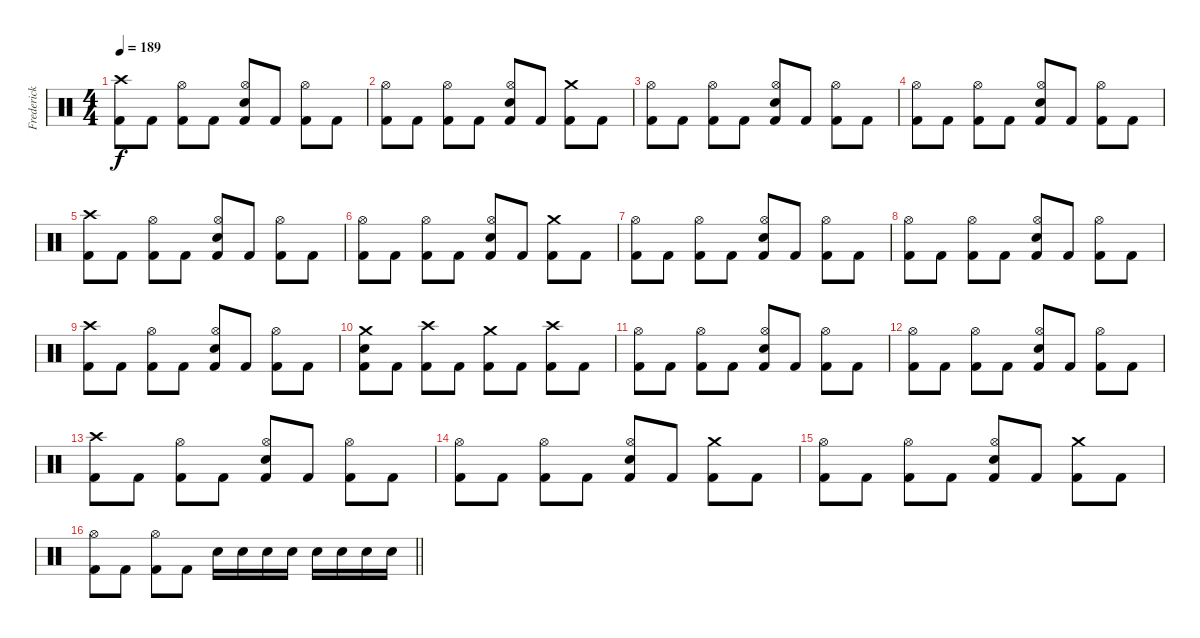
\track ("Frederick Ehmke" "Frederick ") {instrument percussion}
\staff {score}
\articulation defaults
\ts (4 4)
\tempo 189
\clef neutral
\ks c
("Kick (hit) 2" "Crash high (hit)").8{dy f} "Kick (hit) 2".8 ("Kick (hit) 2" "Hi-Hat (open)").8 "Kick (hit) 2".8 ("Electric Snare (hit)" "Kick (hit) 2" "Hi-Hat (open)").8 "Kick (hit) 2".8 ("Kick (hit) 2" "Hi-Hat (open)").8 "Kick (hit) 2".8 |
("Kick (hit) 2" "Hi-Hat (open)").8 "Kick (hit) 2".8 ("Kick (hit) 2" "Hi-Hat (open)").8 "Kick (hit) 2".8 ("Electric Snare (hit)" "Kick (hit) 2" "Hi-Hat (open)").8 "Kick (hit) 2".8 ("Kick (hit) 2" "Crash medium (hit)").8 "Kick (hit) 2".8 |
("Kick (hit) 2" "Hi-Hat (open)").8 "Kick (hit) 2".8 ("Kick (hit) 2" "Hi-Hat (open)").8 "Kick (hit) 2".8 ("Electric Snare (hit)" "Kick (hit) 2" "Hi-Hat (open)").8 "Kick (hit) 2".8 ("Kick (hit) 2" "Hi-Hat (open)").8 "Kick (hit) 2".8 |
("Kick (hit) 2" "Hi-Hat (open)").8 "Kick (hit) 2".8 ("Kick (hit) 2" "Hi-Hat (open)").8 "Kick (hit) 2".8 ("Electric Snare (hit)" "Kick (hit) 2" "Hi-Hat (open)").8 "Kick (hit) 2".8 ("Kick (hit) 2" "Hi-Hat (open)").8 "Kick (hit) 2".8 |
("Kick (hit) 2" "Crash high (hit)").8 "Kick (hit) 2".8 ("Kick (hit) 2" "Hi-Hat (open)").8 "Kick (hit) 2".8 ("Electric Snare (hit)" "Kick (hit) 2" "Hi-Hat (open)").8 "Kick (hit) 2".8 ("Kick (hit) 2" "Hi-Hat (open)").8 "Kick (hit) 2".8 |
("Kick (hit) 2" "Hi-Hat (open)").8 "Kick (hit) 2".8 ("Kick (hit) 2" "Hi-Hat (open)").8 "Kick (hit) 2".8 ("Electric Snare (hit)" "Kick (hit) 2" "Hi-Hat (open)").8 "Kick (hit) 2".8 ("Kick (hit) 2" "Crash medium (hit)").8 "Kick (hit) 2".8 |
("Kick (hit) 2" "Hi-Hat (open)").8 "Kick (hit) 2".8 ("Kick (hit) 2" "Hi-Hat (open)").8 "Kick (hit) 2".8 ("Electric Snare (hit)" "Kick (hit) 2" "Hi-Hat (open)").8 "Kick (hit) 2".8 ("Kick (hit) 2" "Hi-Hat (open)").8 "Kick (hit) 2".8 |
("Kick (hit) 2" "Hi-Hat (open)").8 "Kick (hit) 2".8 ("Kick (hit) 2" "Hi-Hat (open)").8 "Kick (hit) 2".8 ("Electric Snare (hit)" "Kick (hit) 2" "Hi-Hat (open)").8 "Kick (hit) 2".8 ("Kick (hit) 2" "Hi-Hat (open)").8 "Kick (hit) 2".8 |
("Kick (hit) 2" "Crash high (hit)").8 "Kick (hit) 2".8 ("Kick (hit) 2" "Hi-Hat (open)").8 "Kick (hit) 2".8 ("Electric Snare (hit)" "Kick (hit) 2" "Hi-Hat (open)").8 "Kick (hit) 2".8 ("Kick (hit) 2" "Hi-Hat (open)").8 "Kick (hit) 2".8 |
("Electric Snare (hit)" "Kick (hit) 2" "Crash medium (hit)").8 "Kick (hit) 2".8 ("Kick (hit) 2" "Crash high (hit)").8 "Kick (hit) 2".8 ("Kick (hit) 2" "Crash medium (hit)").8 "Kick (hit) 2".8 ("Kick (hit) 2" "Crash high (hit)").8 "Kick (hit) 2".8 |
("Kick (hit) 2" "Hi-Hat (open)").8 "Kick (hit) 2".8 ("Kick (hit) 2" "Hi-Hat (open)").8 "Kick (hit) 2".8 ("Electric Snare (hit)" "Kick (hit) 2" "Hi-Hat (open)").8 "Kick (hit) 2".8 ("Kick (hit) 2" "Hi-Hat (open)").8 "Kick (hit) 2".8 |
("Kick (hit) 2" "Hi-Hat (open)").8 "Kick (hit) 2".8 ("Kick (hit) 2" "Hi-Hat (open)").8 "Kick (hit) 2".8 ("Electric Snare (hit)" "Kick (hit) 2" "Hi-Hat (open)").8 "Kick (hit) 2".8 ("Kick (hit) 2" "Hi-Hat (open)").8 "Kick (hit) 2".8 |
("Kick (hit) 2" "Crash high (hit)").8 "Kick (hit) 2".8 ("Kick (hit) 2" "Hi-Hat (open)").8 "Kick (hit) 2".8 ("Electric Snare (hit)" "Kick (hit) 2" "Hi-Hat (open)").8 "Kick (hit) 2".8 ("Kick (hit) 2" "Hi-Hat (open)").8 "Kick (hit) 2".8 |
("Kick (hit) 2" "Hi-Hat (open)").8 "Kick (hit) 2".8 ("Kick (hit) 2" "Hi-Hat (open)").8 "Kick (hit) 2".8 ("Electric Snare (hit)" "Kick (hit) 2" "Hi-Hat (open)").8 "Kick (hit) 2".8 ("Kick (hit) 2" "Crash medium (hit)").8 "Kick (hit) 2".8 |
("Kick (hit) 2" "Hi-Hat (open)").8 "Kick (hit) 2".8 ("Kick (hit) 2" "Hi-Hat (open)").8 "Kick (hit) 2".8 ("Electric Snare (hit)" "Kick (hit) 2" "Hi-Hat (open)").8 "Kick (hit) 2".8 ("Kick (hit) 2" "Crash medium (hit)").8 "Kick (hit) 2".8 |
\barLineRight lightlight
("Kick (hit) 2" "Hi-Hat (open)").8 "Kick (hit) 2".8 ("Kick (hit) 2" "Hi-Hat (open)").8 "Kick (hit) 2".8 "Electric Snare (hit)".16 "Electric Snare (hit)".16 "Electric Snare (hit)".16 "Electric Snare (hit)".16 "Electric Snare (hit)".16 "Electric Snare (hit)".16 "Electric Snare (hit)".16 "Electric Snare (hit)".16
